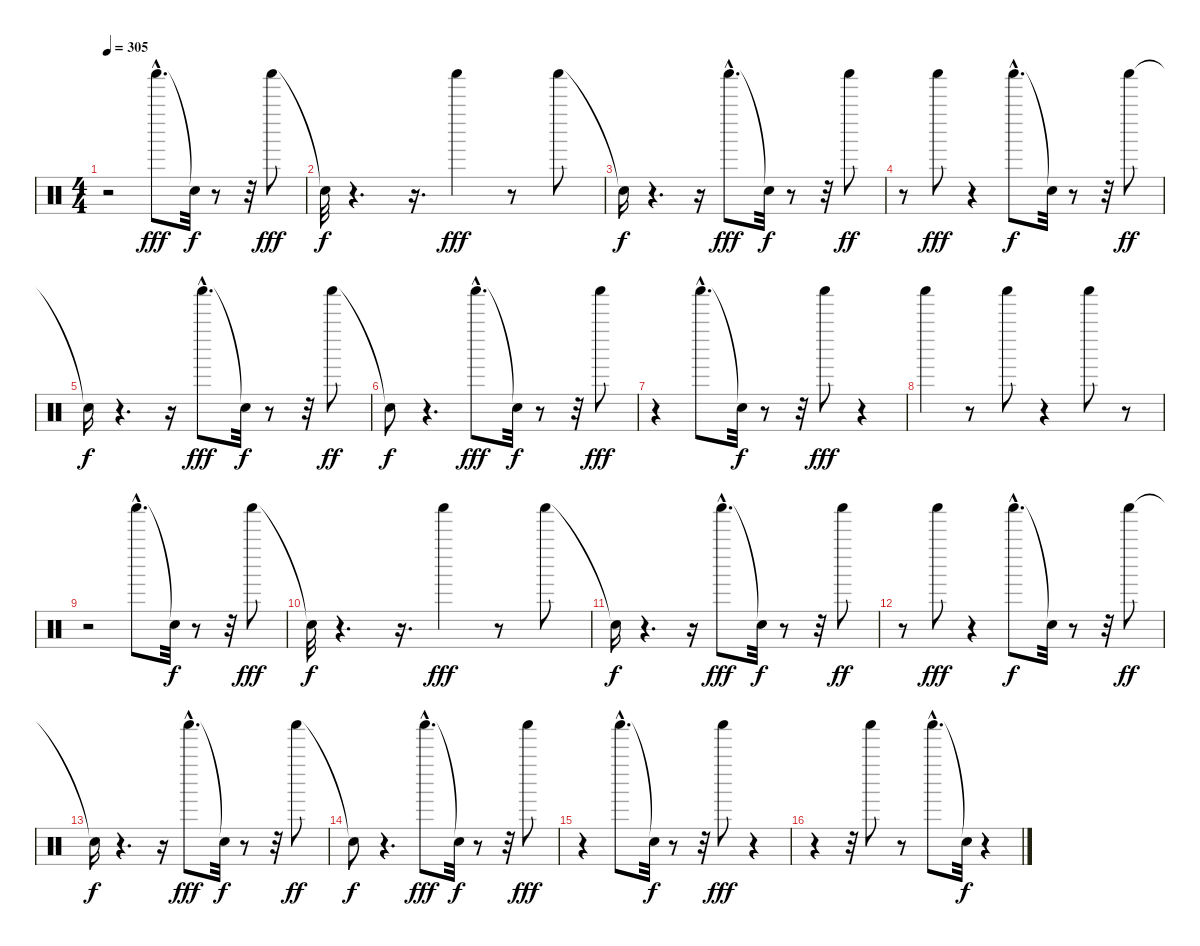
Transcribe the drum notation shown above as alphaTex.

\track "" {instrument percussion}
\staff {score}
\articulation defaults
\ts (4 4)
\tempo 305
\clef neutral
\ks c
r.2{dy fff} "Shaker (hit)"{hac}.8{d} "Snare (hit)"{t}.32{dy f} r.8 r.32 "Shaker (hit)".8{dy fff} |
"Snare (hit)"{t}.32{dy f} r.4{d} r.16{d} "Shaker (hit)".4{dy fff} r.8 "Shaker (hit)".8 |
"Snare (hit)"{t}.16{dy f} r.4{d} r.16 "Shaker (hit)"{hac}.8{d dy fff} "Snare (hit)"{t}.32{dy f} r.8 r.32 "Shaker (hit)".8{dy ff} |
r.8 "Shaker (hit)".8{dy fff} r.4 "Shaker (hit)"{hac}.8{d dy f} "Snare (hit)"{t}.32 r.8 r.32 "Shaker (hit)".8{dy ff} |
"Snare (hit)"{t}.16{dy f} r.4{d} r.16 "Shaker (hit)"{hac}.8{d dy fff} "Snare (hit)"{t}.32{dy f} r.8 r.32 "Shaker (hit)".8{dy ff} |
"Snare (hit)"{t}.8{dy f} r.4{d} "Shaker (hit)"{hac}.8{d dy fff} "Snare (hit)"{t}.32{dy f} r.8 r.32 "Shaker (hit)".8{dy fff} |
r.4 "Shaker (hit)"{hac}.8{d} "Snare (hit)"{t}.32{dy f} r.8 r.32 "Shaker (hit)".8{dy fff} r.4 |
"Shaker (hit)".4 r.8 "Shaker (hit)".8 r.4 "Shaker (hit)".8 r.8 |
r.2 "Shaker (hit)"{hac}.8{d} "Snare (hit)"{t}.32{dy f} r.8 r.32 "Shaker (hit)".8{dy fff} |
"Snare (hit)"{t}.32{dy f} r.4{d} r.16{d} "Shaker (hit)".4{dy fff} r.8 "Shaker (hit)".8 |
"Snare (hit)"{t}.16{dy f} r.4{d} r.16 "Shaker (hit)"{hac}.8{d dy fff} "Snare (hit)"{t}.32{dy f} r.8 r.32 "Shaker (hit)".8{dy ff} |
r.8 "Shaker (hit)".8{dy fff} r.4 "Shaker (hit)"{hac}.8{d dy f} "Snare (hit)"{t}.32 r.8 r.32 "Shaker (hit)".8{dy ff} |
"Snare (hit)"{t}.16{dy f} r.4{d} r.16 "Shaker (hit)"{hac}.8{d dy fff} "Snare (hit)"{t}.32{dy f} r.8 r.32 "Shaker (hit)".8{dy ff} |
"Snare (hit)"{t}.8{dy f} r.4{d} "Shaker (hit)"{hac}.8{d dy fff} "Snare (hit)"{t}.32{dy f} r.8 r.32 "Shaker (hit)".8{dy fff} |
r.4 "Shaker (hit)"{hac}.8{d} "Snare (hit)"{t}.32{dy f} r.8 r.32 "Shaker (hit)".8{dy fff} r.4 |
r.4 r.32 "Shaker (hit)".8 r.8 "Shaker (hit)"{hac}.8{d} "Snare (hit)"{t}.32{dy f} r.4
